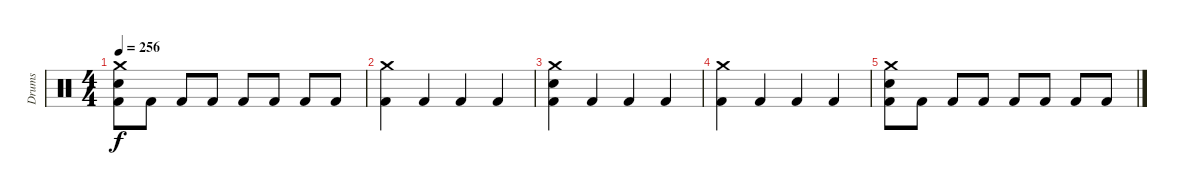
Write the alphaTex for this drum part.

\track ("Drums" "Drums") {instrument percussion}
\staff {score}
\articulation defaults
\ts (4 4)
\tempo 256
\clef neutral
\ks c
("Crash medium (hit)" "Electric Snare (hit)" "Kick (hit) 2").8{dy f} "Kick (hit) 2".8 "Kick (hit) 2".8 "Kick (hit) 2".8 "Kick (hit) 2".8 "Kick (hit) 2".8 "Kick (hit) 2".8 "Kick (hit) 2".8 |
("Crash medium (hit)" "Kick (hit) 2").4 "Kick (hit) 2".4 "Kick (hit) 2".4 "Kick (hit) 2".4 |
("Crash medium (hit)" "Electric Snare (hit)" "Kick (hit) 2").4 "Kick (hit) 2".4 "Kick (hit) 2".4 "Kick (hit) 2".4 |
("Crash medium (hit)" "Kick (hit) 2").4 "Kick (hit) 2".4 "Kick (hit) 2".4 "Kick (hit) 2".4 |
("Crash medium (hit)" "Electric Snare (hit)" "Kick (hit) 2").8 "Kick (hit) 2".8 "Kick (hit) 2".8 "Kick (hit) 2".8 "Kick (hit) 2".8 "Kick (hit) 2".8 "Kick (hit) 2".8 "Kick (hit) 2".8
